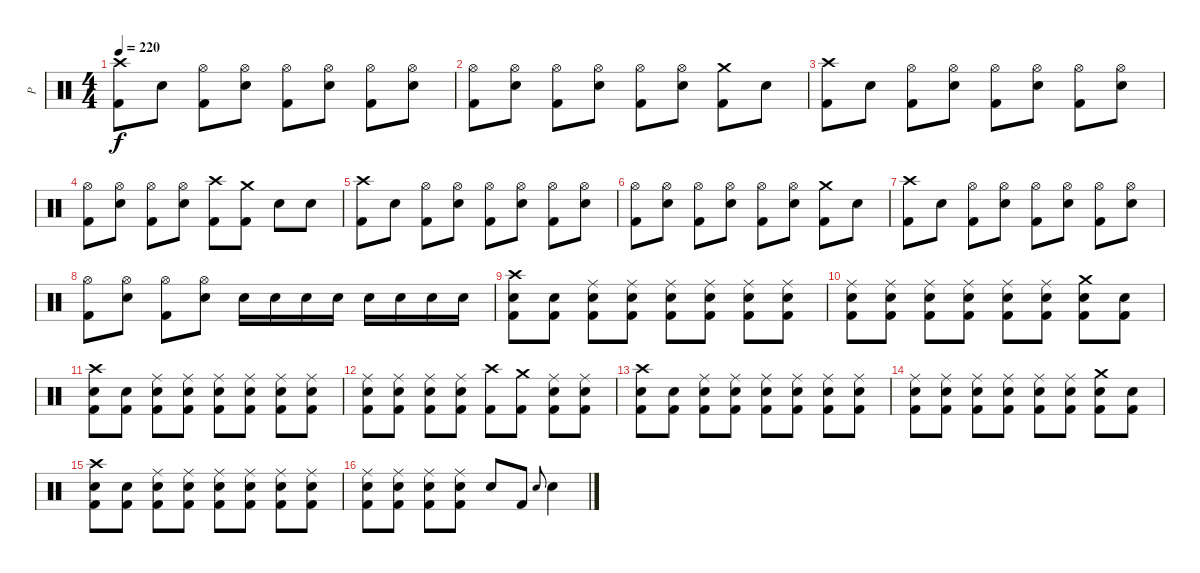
\track ("P" "P") {instrument percussion}
\staff {score}
\articulation defaults
\ts (4 4)
\tempo 220
\clef neutral
\ks c
("Crash high (hit)" "Kick (hit) 2").8{dy f} "Electric Snare (hit)".8 ("Hi-Hat (open)" "Kick (hit) 2").8 ("Hi-Hat (open)" "Electric Snare (hit)").8 ("Hi-Hat (open)" "Kick (hit) 2").8 ("Hi-Hat (open)" "Electric Snare (hit)").8 ("Hi-Hat (open)" "Kick (hit) 2").8 ("Hi-Hat (open)" "Electric Snare (hit)").8 |
("Hi-Hat (open)" "Kick (hit) 2").8 ("Hi-Hat (open)" "Electric Snare (hit)").8 ("Hi-Hat (open)" "Kick (hit) 2").8 ("Hi-Hat (open)" "Electric Snare (hit)").8 ("Hi-Hat (open)" "Kick (hit) 2").8 ("Hi-Hat (open)" "Electric Snare (hit)").8 ("Crash medium (hit)" "Kick (hit) 2").8 "Electric Snare (hit)".8 |
("Crash high (hit)" "Kick (hit) 2").8 "Electric Snare (hit)".8 ("Hi-Hat (open)" "Kick (hit) 2").8 ("Hi-Hat (open)" "Electric Snare (hit)").8 ("Hi-Hat (open)" "Kick (hit) 2").8 ("Hi-Hat (open)" "Electric Snare (hit)").8 ("Hi-Hat (open)" "Kick (hit) 2").8 ("Hi-Hat (open)" "Electric Snare (hit)").8 |
("Hi-Hat (open)" "Kick (hit) 2").8 ("Hi-Hat (open)" "Electric Snare (hit)").8 ("Hi-Hat (open)" "Kick (hit) 2").8 ("Hi-Hat (open)" "Electric Snare (hit)").8 ("Crash high (hit)" "Kick (hit) 2").8 ("Crash medium (hit)" "Kick (hit) 2").8 "Electric Snare (hit)".8 "Electric Snare (hit)".8 |
("Crash high (hit)" "Kick (hit) 2").8 "Electric Snare (hit)".8 ("Hi-Hat (open)" "Kick (hit) 2").8 ("Hi-Hat (open)" "Electric Snare (hit)").8 ("Hi-Hat (open)" "Kick (hit) 2").8 ("Hi-Hat (open)" "Electric Snare (hit)").8 ("Hi-Hat (open)" "Kick (hit) 2").8 ("Hi-Hat (open)" "Electric Snare (hit)").8 |
("Hi-Hat (open)" "Kick (hit) 2").8 ("Hi-Hat (open)" "Electric Snare (hit)").8 ("Hi-Hat (open)" "Kick (hit) 2").8 ("Hi-Hat (open)" "Electric Snare (hit)").8 ("Hi-Hat (open)" "Kick (hit) 2").8 ("Hi-Hat (open)" "Electric Snare (hit)").8 ("Crash medium (hit)" "Kick (hit) 2").8 "Electric Snare (hit)".8 |
("Crash high (hit)" "Kick (hit) 2").8 "Electric Snare (hit)".8 ("Hi-Hat (open)" "Kick (hit) 2").8 ("Hi-Hat (open)" "Electric Snare (hit)").8 ("Hi-Hat (open)" "Kick (hit) 2").8 ("Hi-Hat (open)" "Electric Snare (hit)").8 ("Hi-Hat (open)" "Kick (hit) 2").8 ("Hi-Hat (open)" "Electric Snare (hit)").8 |
("Hi-Hat (open)" "Kick (hit) 2").8 ("Hi-Hat (open)" "Electric Snare (hit)").8 ("Hi-Hat (open)" "Kick (hit) 2").8 ("Hi-Hat (open)" "Electric Snare (hit)").8 "Electric Snare (hit)".16 "Electric Snare (hit)".16 "Electric Snare (hit)".16 "Electric Snare (hit)".16 "Electric Snare (hit)".16 "Electric Snare (hit)".16 "Electric Snare (hit)".16 "Electric Snare (hit)".16 |
("Crash high (hit)" "Electric Snare (hit)" "Kick (hit) 2").8 ("Electric Snare (hit)" "Kick (hit) 2").8 ("Ride (middle)" "Electric Snare (hit)" "Kick (hit) 2").8 ("Ride (middle)" "Electric Snare (hit)" "Kick (hit) 2").8 ("Ride (middle)" "Electric Snare (hit)" "Kick (hit) 2").8 ("Ride (middle)" "Electric Snare (hit)" "Kick (hit) 2").8 ("Ride (middle)" "Electric Snare (hit)" "Kick (hit) 2").8 ("Ride (middle)" "Electric Snare (hit)" "Kick (hit) 2").8 |
("Ride (middle)" "Electric Snare (hit)" "Kick (hit) 2").8 ("Ride (middle)" "Electric Snare (hit)" "Kick (hit) 2").8 ("Ride (middle)" "Electric Snare (hit)" "Kick (hit) 2").8 ("Ride (middle)" "Electric Snare (hit)" "Kick (hit) 2").8 ("Ride (middle)" "Electric Snare (hit)" "Kick (hit) 2").8 ("Ride (middle)" "Electric Snare (hit)" "Kick (hit) 2").8 ("Crash medium (hit)" "Electric Snare (hit)" "Kick (hit) 2").8 ("Electric Snare (hit)" "Kick (hit) 2").8 |
("Crash high (hit)" "Electric Snare (hit)" "Kick (hit) 2").8 ("Electric Snare (hit)" "Kick (hit) 2").8 ("Ride (middle)" "Electric Snare (hit)" "Kick (hit) 2").8 ("Ride (middle)" "Electric Snare (hit)" "Kick (hit) 2").8 ("Ride (middle)" "Electric Snare (hit)" "Kick (hit) 2").8 ("Ride (middle)" "Electric Snare (hit)" "Kick (hit) 2").8 ("Ride (middle)" "Electric Snare (hit)" "Kick (hit) 2").8 ("Ride (middle)" "Electric Snare (hit)" "Kick (hit) 2").8 |
("Ride (middle)" "Electric Snare (hit)" "Kick (hit) 2").8 ("Ride (middle)" "Electric Snare (hit)" "Kick (hit) 2").8 ("Ride (middle)" "Electric Snare (hit)" "Kick (hit) 2").8 ("Ride (middle)" "Electric Snare (hit)" "Kick (hit) 2").8 ("Crash high (hit)" "Kick (hit) 2").8 ("Crash medium (hit)" "Kick (hit) 2").8 ("Ride (middle)" "Electric Snare (hit)" "Kick (hit) 2").8 ("Ride (middle)" "Electric Snare (hit)" "Kick (hit) 2").8 |
("Crash high (hit)" "Electric Snare (hit)" "Kick (hit) 2").8 ("Electric Snare (hit)" "Kick (hit) 2").8 ("Ride (middle)" "Electric Snare (hit)" "Kick (hit) 2").8 ("Ride (middle)" "Electric Snare (hit)" "Kick (hit) 2").8 ("Ride (middle)" "Electric Snare (hit)" "Kick (hit) 2").8 ("Ride (middle)" "Electric Snare (hit)" "Kick (hit) 2").8 ("Ride (middle)" "Electric Snare (hit)" "Kick (hit) 2").8 ("Ride (middle)" "Electric Snare (hit)" "Kick (hit) 2").8 |
("Ride (middle)" "Electric Snare (hit)" "Kick (hit) 2").8 ("Ride (middle)" "Electric Snare (hit)" "Kick (hit) 2").8 ("Ride (middle)" "Electric Snare (hit)" "Kick (hit) 2").8 ("Ride (middle)" "Electric Snare (hit)" "Kick (hit) 2").8 ("Ride (middle)" "Electric Snare (hit)" "Kick (hit) 2").8 ("Ride (middle)" "Electric Snare (hit)" "Kick (hit) 2").8 ("Crash medium (hit)" "Electric Snare (hit)" "Kick (hit) 2").8 ("Electric Snare (hit)" "Kick (hit) 2").8 |
("Crash high (hit)" "Electric Snare (hit)" "Kick (hit) 2").8 ("Electric Snare (hit)" "Kick (hit) 2").8 ("Ride (middle)" "Electric Snare (hit)" "Kick (hit) 2").8 ("Ride (middle)" "Electric Snare (hit)" "Kick (hit) 2").8 ("Ride (middle)" "Electric Snare (hit)" "Kick (hit) 2").8 ("Ride (middle)" "Electric Snare (hit)" "Kick (hit) 2").8 ("Ride (middle)" "Electric Snare (hit)" "Kick (hit) 2").8 ("Ride (middle)" "Electric Snare (hit)" "Kick (hit) 2").8 |
("Ride (middle)" "Electric Snare (hit)" "Kick (hit) 2").8 ("Ride (middle)" "Electric Snare (hit)" "Kick (hit) 2").8 ("Ride (middle)" "Electric Snare (hit)" "Kick (hit) 2").8 ("Ride (middle)" "Electric Snare (hit)" "Kick (hit) 2").8 "Electric Snare (hit)".8 "Kick (hit) 2".8 "Electric Snare (hit)".8{gr onbeat} "Electric Snare (hit)".4
